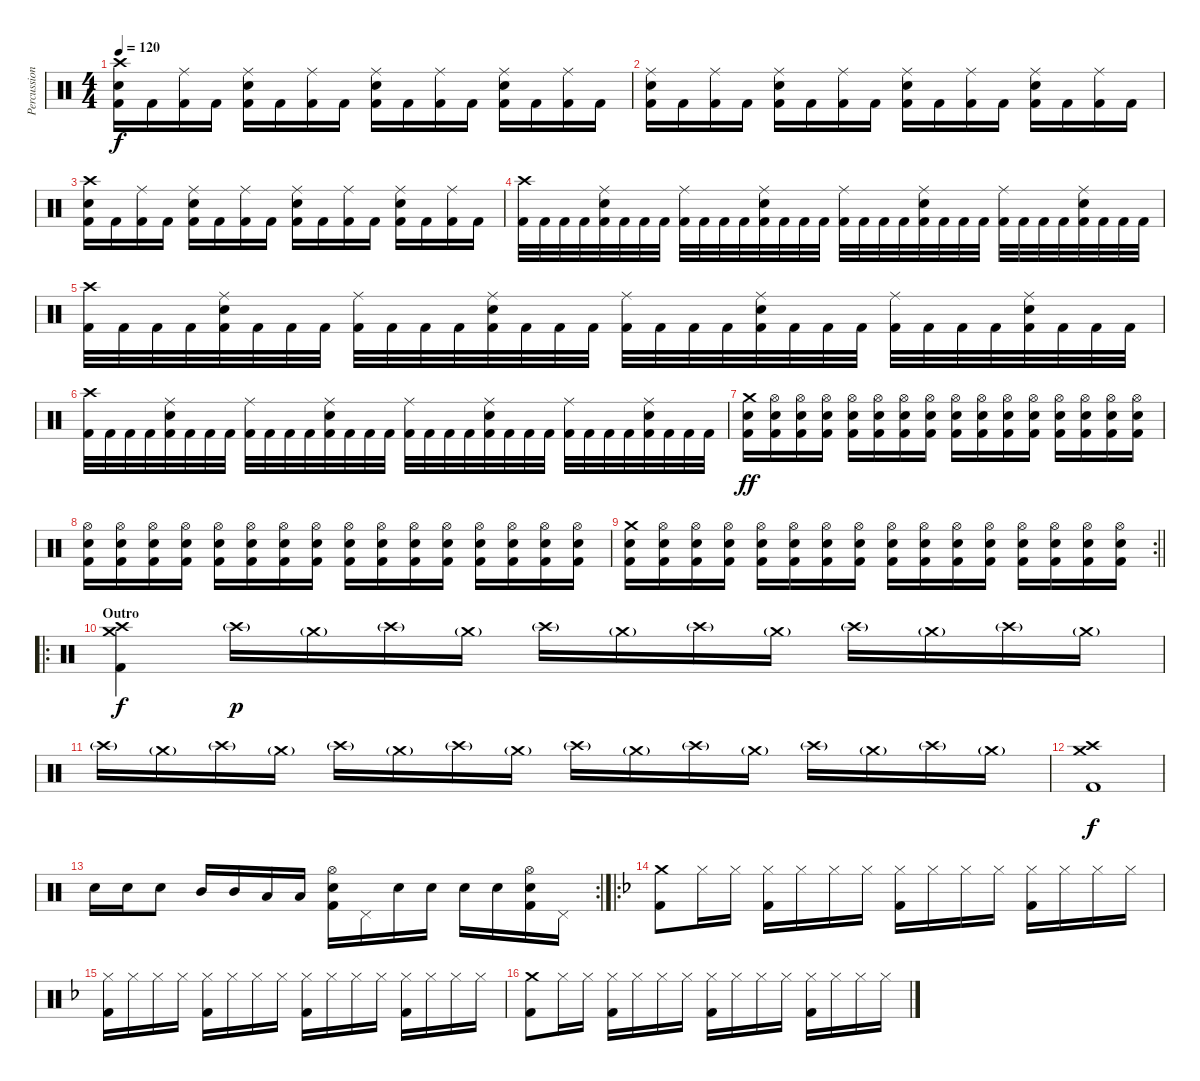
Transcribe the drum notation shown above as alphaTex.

\track ("Percussions" "Percussion") {instrument percussion}
\staff {score}
\articulation defaults
\ts (4 4)
\tempo 120
\clef neutral
\ks c
("Crash high (hit)" "Electric Snare (hit)" "Kick (hit) 2").16{dy f} "Kick (hit) 2".16 ("Ride (middle)" "Kick (hit) 2").16 "Kick (hit) 2".16 ("Ride (middle)" "Electric Snare (hit)" "Kick (hit) 2").16 "Kick (hit) 2".16 ("Ride (middle)" "Kick (hit) 2").16 "Kick (hit) 2".16 ("Ride (middle)" "Electric Snare (hit)" "Kick (hit) 2").16 "Kick (hit) 2".16 ("Ride (middle)" "Kick (hit) 2").16 "Kick (hit) 2".16 ("Ride (middle)" "Electric Snare (hit)" "Kick (hit) 2").16 "Kick (hit) 2".16 ("Ride (middle)" "Kick (hit) 2").16 "Kick (hit) 2".16 |
("Ride (middle)" "Electric Snare (hit)" "Kick (hit) 2").16 "Kick (hit) 2".16 ("Ride (middle)" "Kick (hit) 2").16 "Kick (hit) 2".16 ("Ride (middle)" "Electric Snare (hit)" "Kick (hit) 2").16 "Kick (hit) 2".16 ("Ride (middle)" "Kick (hit) 2").16 "Kick (hit) 2".16 ("Ride (middle)" "Electric Snare (hit)" "Kick (hit) 2").16 "Kick (hit) 2".16 ("Ride (middle)" "Kick (hit) 2").16 "Kick (hit) 2".16 ("Ride (middle)" "Electric Snare (hit)" "Kick (hit) 2").16 "Kick (hit) 2".16 ("Ride (middle)" "Kick (hit) 2").16 "Kick (hit) 2".16 |
("Crash high (hit)" "Electric Snare (hit)" "Kick (hit) 2").16 "Kick (hit) 2".16 ("Ride (middle)" "Kick (hit) 2").16 "Kick (hit) 2".16 ("Ride (middle)" "Electric Snare (hit)" "Kick (hit) 2").16 "Kick (hit) 2".16 ("Ride (middle)" "Kick (hit) 2").16 "Kick (hit) 2".16 ("Ride (middle)" "Electric Snare (hit)" "Kick (hit) 2").16 "Kick (hit) 2".16 ("Ride (middle)" "Kick (hit) 2").16 "Kick (hit) 2".16 ("Ride (middle)" "Electric Snare (hit)" "Kick (hit) 2").16 "Kick (hit) 2".16 ("Ride (middle)" "Kick (hit) 2").16 "Kick (hit) 2".16 |
("Crash high (hit)" "Kick (hit) 2").32 "Kick (hit) 2".32 "Kick (hit) 2".32 "Kick (hit) 2".32 ("Ride (middle)" "Snare (hit) 2" "Kick (hit) 2").32 "Kick (hit) 2".32 "Kick (hit) 2".32 "Kick (hit) 2".32 ("Ride (middle)" "Kick (hit) 2").32 "Kick (hit) 2".32 "Kick (hit) 2".32 "Kick (hit) 2".32 ("Ride (middle)" "Snare (hit) 2" "Kick (hit) 2").32 "Kick (hit) 2".32 "Kick (hit) 2".32 "Kick (hit) 2".32 ("Ride (middle)" "Kick (hit) 2").32 "Kick (hit) 2".32 "Kick (hit) 2".32 "Kick (hit) 2".32 ("Ride (middle)" "Snare (hit) 2" "Kick (hit) 2").32 "Kick (hit) 2".32 "Kick (hit) 2".32 "Kick (hit) 2".32 ("Ride (middle)" "Kick (hit) 2").32 "Kick (hit) 2".32 "Kick (hit) 2".32 "Kick (hit) 2".32 ("Ride (middle)" "Snare (hit) 2" "Kick (hit) 2").32 "Kick (hit) 2".32 "Kick (hit) 2".32 "Kick (hit) 2".32 |
("Crash high (hit)" "Kick (hit) 2").32 "Kick (hit) 2".32 "Kick (hit) 2".32 "Kick (hit) 2".32 ("Ride (middle)" "Snare (hit) 2" "Kick (hit) 2").32 "Kick (hit) 2".32 "Kick (hit) 2".32 "Kick (hit) 2".32 ("Ride (middle)" "Kick (hit) 2").32 "Kick (hit) 2".32 "Kick (hit) 2".32 "Kick (hit) 2".32 ("Ride (middle)" "Snare (hit) 2" "Kick (hit) 2").32 "Kick (hit) 2".32 "Kick (hit) 2".32 "Kick (hit) 2".32 ("Ride (middle)" "Kick (hit) 2").32 "Kick (hit) 2".32 "Kick (hit) 2".32 "Kick (hit) 2".32 ("Ride (middle)" "Snare (hit) 2" "Kick (hit) 2").32 "Kick (hit) 2".32 "Kick (hit) 2".32 "Kick (hit) 2".32 ("Ride (middle)" "Kick (hit) 2").32 "Kick (hit) 2".32 "Kick (hit) 2".32 "Kick (hit) 2".32 ("Ride (middle)" "Snare (hit) 2" "Kick (hit) 2").32 "Kick (hit) 2".32 "Kick (hit) 2".32 "Kick (hit) 2".32 |
("Crash high (hit)" "Kick (hit) 2").32 "Kick (hit) 2".32 "Kick (hit) 2".32 "Kick (hit) 2".32 ("Ride (middle)" "Snare (hit) 2" "Kick (hit) 2").32 "Kick (hit) 2".32 "Kick (hit) 2".32 "Kick (hit) 2".32 ("Ride (middle)" "Kick (hit) 2").32 "Kick (hit) 2".32 "Kick (hit) 2".32 "Kick (hit) 2".32 ("Ride (middle)" "Snare (hit) 2" "Kick (hit) 2").32 "Kick (hit) 2".32 "Kick (hit) 2".32 "Kick (hit) 2".32 ("Ride (middle)" "Kick (hit) 2").32 "Kick (hit) 2".32 "Kick (hit) 2".32 "Kick (hit) 2".32 ("Ride (middle)" "Snare (hit) 2" "Kick (hit) 2").32 "Kick (hit) 2".32 "Kick (hit) 2".32 "Kick (hit) 2".32 ("Ride (middle)" "Kick (hit) 2").32 "Kick (hit) 2".32 "Kick (hit) 2".32 "Kick (hit) 2".32 ("Ride (middle)" "Snare (hit) 2" "Kick (hit) 2").32 "Kick (hit) 2".32 "Kick (hit) 2".32 "Kick (hit) 2".32 |
("Crash medium (hit)" "Electric Snare (hit)" "Kick (hit) 2").16{dy ff} ("Hi-Hat (open)" "Electric Snare (hit)" "Kick (hit) 2").16 ("Hi-Hat (open)" "Electric Snare (hit)" "Kick (hit) 2").16 ("Hi-Hat (open)" "Electric Snare (hit)" "Kick (hit) 2").16 ("Hi-Hat (open)" "Electric Snare (hit)" "Kick (hit) 2").16 ("Hi-Hat (open)" "Electric Snare (hit)" "Kick (hit) 2").16 ("Hi-Hat (open)" "Electric Snare (hit)" "Kick (hit) 2").16 ("Hi-Hat (open)" "Electric Snare (hit)" "Kick (hit) 2").16 ("Hi-Hat (open)" "Electric Snare (hit)" "Kick (hit) 2").16 ("Hi-Hat (open)" "Electric Snare (hit)" "Kick (hit) 2").16 ("Hi-Hat (open)" "Electric Snare (hit)" "Kick (hit) 2").16 ("Hi-Hat (open)" "Electric Snare (hit)" "Kick (hit) 2").16 ("Hi-Hat (open)" "Electric Snare (hit)" "Kick (hit) 2").16 ("Hi-Hat (open)" "Electric Snare (hit)" "Kick (hit) 2").16 ("Hi-Hat (open)" "Electric Snare (hit)" "Kick (hit) 2").16 ("Hi-Hat (open)" "Electric Snare (hit)" "Kick (hit) 2").16 |
("Hi-Hat (open)" "Electric Snare (hit)" "Kick (hit) 2").16 ("Hi-Hat (open)" "Electric Snare (hit)" "Kick (hit) 2").16 ("Hi-Hat (open)" "Electric Snare (hit)" "Kick (hit) 2").16 ("Hi-Hat (open)" "Electric Snare (hit)" "Kick (hit) 2").16 ("Hi-Hat (open)" "Electric Snare (hit)" "Kick (hit) 2").16 ("Hi-Hat (open)" "Electric Snare (hit)" "Kick (hit) 2").16 ("Hi-Hat (open)" "Electric Snare (hit)" "Kick (hit) 2").16 ("Hi-Hat (open)" "Electric Snare (hit)" "Kick (hit) 2").16 ("Hi-Hat (open)" "Electric Snare (hit)" "Kick (hit) 2").16 ("Hi-Hat (open)" "Electric Snare (hit)" "Kick (hit) 2").16 ("Hi-Hat (open)" "Electric Snare (hit)" "Kick (hit) 2").16 ("Hi-Hat (open)" "Electric Snare (hit)" "Kick (hit) 2").16 ("Hi-Hat (open)" "Electric Snare (hit)" "Kick (hit) 2").16 ("Hi-Hat (open)" "Electric Snare (hit)" "Kick (hit) 2").16 ("Hi-Hat (open)" "Electric Snare (hit)" "Kick (hit) 2").16 ("Hi-Hat (open)" "Electric Snare (hit)" "Kick (hit) 2").16 |
\rc 2
\barLineRight lightlight
("Crash medium (hit)" "Electric Snare (hit)" "Kick (hit) 2").16 ("Hi-Hat (open)" "Electric Snare (hit)" "Kick (hit) 2").16 ("Hi-Hat (open)" "Electric Snare (hit)" "Kick (hit) 2").16 ("Hi-Hat (open)" "Electric Snare (hit)" "Kick (hit) 2").16 ("Hi-Hat (open)" "Electric Snare (hit)" "Kick (hit) 2").16 ("Hi-Hat (open)" "Electric Snare (hit)" "Kick (hit) 2").16 ("Hi-Hat (open)" "Electric Snare (hit)" "Kick (hit) 2").16 ("Hi-Hat (open)" "Electric Snare (hit)" "Kick (hit) 2").16 ("Hi-Hat (open)" "Electric Snare (hit)" "Kick (hit) 2").16 ("Hi-Hat (open)" "Electric Snare (hit)" "Kick (hit) 2").16 ("Hi-Hat (open)" "Electric Snare (hit)" "Kick (hit) 2").16 ("Hi-Hat (open)" "Electric Snare (hit)" "Kick (hit) 2").16 ("Hi-Hat (open)" "Electric Snare (hit)" "Kick (hit) 2").16 ("Hi-Hat (open)" "Electric Snare (hit)" "Kick (hit) 2").16 ("Hi-Hat (open)" "Electric Snare (hit)" "Kick (hit) 2").16 ("Hi-Hat (open)" "Electric Snare (hit)" "Kick (hit) 2").16 |
\ro
\section ("" "Outro")
("Crash medium (hit)" "Crash high (hit)" "Kick (hit) 2").4{dy f} "Crash high (hit)"{g}.16{dy p} "Crash medium (hit)"{g}.16 "Crash high (hit)"{g}.16 "Crash medium (hit)"{g}.16 "Crash high (hit)"{g}.16 "Crash medium (hit)"{g}.16 "Crash high (hit)"{g}.16 "Crash medium (hit)"{g}.16 "Crash high (hit)"{g}.16 "Crash medium (hit)"{g}.16 "Crash high (hit)"{g}.16 "Crash medium (hit)"{g}.16 |
"Crash high (hit)"{g}.16 "Crash medium (hit)"{g}.16 "Crash high (hit)"{g}.16 "Crash medium (hit)"{g}.16 "Crash high (hit)"{g}.16 "Crash medium (hit)"{g}.16 "Crash high (hit)"{g}.16 "Crash medium (hit)"{g}.16 "Crash high (hit)"{g}.16 "Crash medium (hit)"{g}.16 "Crash high (hit)"{g}.16 "Crash medium (hit)"{g}.16 "Crash high (hit)"{g}.16 "Crash medium (hit)"{g}.16 "Crash high (hit)"{g}.16 "Crash medium (hit)"{g}.16 |
("Crash medium (hit)" "Crash high (hit)" "Kick (hit) 2").1{dy f} |
\rc 2 "Electric Snare (hit)".16 "Electric Snare (hit)".16 "Electric Snare (hit)".8 "Mid Tom (hit)".16 "Mid Tom (hit)".16 "Low Tom (hit)".16 "Low Tom (hit)".16
("Hi-Hat (open)" "Electric Snare (hit)" "Kick (hit) 2").16 "Pedal Hi-Hat (hit)".16 "Electric Snare (hit)".16 "Electric Snare (hit)".16 "Electric Snare (hit)".16 "Electric Snare (hit)".16 ("Hi-Hat (open)" "Electric Snare (hit)" "Kick (hit) 2").16 "Pedal Hi-Hat (hit)".16 |
\ro
\ks f
("Crash medium (hit)" "Kick (hit) 2").8 "Hi-Hat (closed)".16 "Hi-Hat (closed)".16 ("Hi-Hat (closed)" "Kick (hit) 2").16 "Hi-Hat (closed)".16 "Hi-Hat (closed)".16 "Hi-Hat (closed)".16 ("Hi-Hat (closed)" "Kick (hit) 2").16 "Hi-Hat (closed)".16 "Hi-Hat (closed)".16 "Hi-Hat (closed)".16 ("Hi-Hat (closed)" "Kick (hit) 2").16 "Hi-Hat (closed)".16 "Hi-Hat (closed)".16 "Hi-Hat (closed)".16 |
("Hi-Hat (closed)" "Kick (hit) 2").16 "Hi-Hat (closed)".16 "Hi-Hat (closed)".16 "Hi-Hat (closed)".16 ("Hi-Hat (closed)" "Kick (hit) 2").16 "Hi-Hat (closed)".16 "Hi-Hat (closed)".16 "Hi-Hat (closed)".16 ("Hi-Hat (closed)" "Kick (hit) 2").16 "Hi-Hat (closed)".16 "Hi-Hat (closed)".16 "Hi-Hat (closed)".16 ("Hi-Hat (closed)" "Kick (hit) 2").16 "Hi-Hat (closed)".16 "Hi-Hat (closed)".16 "Hi-Hat (closed)".16 |
("Crash medium (hit)" "Kick (hit) 2").8 "Hi-Hat (closed)".16 "Hi-Hat (closed)".16 ("Hi-Hat (closed)" "Kick (hit) 2").16 "Hi-Hat (closed)".16 "Hi-Hat (closed)".16 "Hi-Hat (closed)".16 ("Hi-Hat (closed)" "Kick (hit) 2").16 "Hi-Hat (closed)".16 "Hi-Hat (closed)".16 "Hi-Hat (closed)".16 ("Hi-Hat (closed)" "Kick (hit) 2").16 "Hi-Hat (closed)".16 "Hi-Hat (closed)".16 "Hi-Hat (closed)".16
